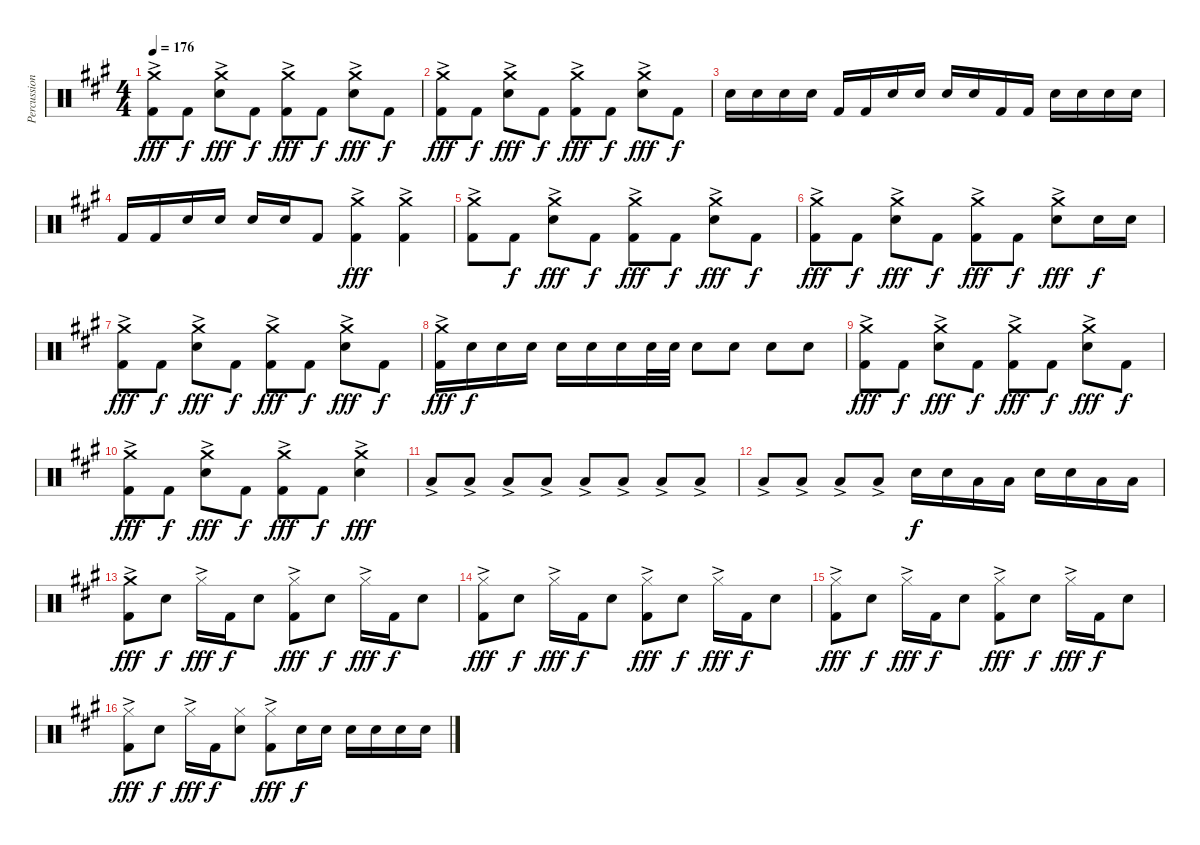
\track ("Percussion" "Percussion") {instrument percussion}
\staff {score}
\articulation defaults
\ts (4 4)
\tempo 176
\clef neutral
\ks a
("Crash medium (hit)"{ac} "Kick (hit) 2").8{dy fff} "Kick (hit) 2".8{dy f} ("Crash medium (hit)"{ac} "Snare (hit) 2").8{dy fff} "Kick (hit) 2".8{dy f} ("Crash medium (hit)"{ac} "Kick (hit) 2").8{dy fff} "Kick (hit) 2".8{dy f} ("Crash medium (hit)"{ac} "Snare (hit) 2").8{dy fff} "Kick (hit) 2".8{dy f} |
("Crash medium (hit)"{ac} "Kick (hit) 2").8{dy fff} "Kick (hit) 2".8{dy f} ("Crash medium (hit)"{ac} "Snare (hit) 2").8{dy fff} "Kick (hit) 2".8{dy f} ("Crash medium (hit)"{ac} "Kick (hit) 2").8{dy fff} "Kick (hit) 2".8{dy f} ("Crash medium (hit)"{ac} "Snare (hit) 2").8{dy fff} "Kick (hit) 2".8{dy f} |
"Snare (hit) 2".16 "Snare (hit) 2".16 "Snare (hit) 2".16 "Snare (hit) 2".16 "Kick (hit) 2".16 "Kick (hit) 2".16 "Snare (hit) 2".16 "Snare (hit) 2".16 "Snare (hit) 2".16 "Snare (hit) 2".16 "Kick (hit) 2".16 "Kick (hit) 2".16 "Snare (hit) 2".16 "Snare (hit) 2".16 "Snare (hit) 2".16 "Snare (hit) 2".16 |
"Kick (hit) 2".16 "Kick (hit) 2".16 "Snare (hit) 2".16 "Snare (hit) 2".16 "Snare (hit) 2".16 "Snare (hit) 2".16 "Kick (hit) 2".8 ("Crash medium (hit)"{ac} "Kick (hit) 2"{ac}).4{dy fff} ("Crash medium (hit)"{ac} "Kick (hit) 2"{ac}).4 |
("Crash medium (hit)"{ac} "Kick (hit) 2").8 "Kick (hit) 2".8{dy f} ("Crash medium (hit)"{ac} "Snare (hit) 2").8{dy fff} "Kick (hit) 2".8{dy f} ("Crash medium (hit)"{ac} "Kick (hit) 2").8{dy fff} "Kick (hit) 2".8{dy f} ("Crash medium (hit)"{ac} "Snare (hit) 2").8{dy fff} "Kick (hit) 2".8{dy f} |
("Crash medium (hit)"{ac} "Kick (hit) 2").8{dy fff} "Kick (hit) 2".8{dy f} ("Crash medium (hit)"{ac} "Snare (hit) 2").8{dy fff} "Kick (hit) 2".8{dy f} ("Crash medium (hit)"{ac} "Kick (hit) 2").8{dy fff} "Kick (hit) 2".8{dy f} ("Crash medium (hit)"{ac} "Snare (hit) 2").8{dy fff} "Snare (hit) 2".16{dy f} "Snare (hit) 2".16 |
("Crash medium (hit)"{ac} "Kick (hit) 2").8{dy fff} "Kick (hit) 2".8{dy f} ("Crash medium (hit)"{ac} "Snare (hit) 2").8{dy fff} "Kick (hit) 2".8{dy f} ("Crash medium (hit)"{ac} "Kick (hit) 2").8{dy fff} "Kick (hit) 2".8{dy f} ("Crash medium (hit)"{ac} "Snare (hit) 2").8{dy fff} "Kick (hit) 2".8{dy f} |
("Crash medium (hit)"{ac} "Kick (hit) 2"{ac}).16{dy fff} "Snare (hit) 2".16{dy f} "Snare (hit) 2".16 "Snare (hit) 2".16 "Snare (hit) 2".16 "Snare (hit) 2".16 "Snare (hit) 2".16 "Snare (hit) 2".32 "Snare (hit) 2".32 "Snare (hit) 2".8 "Snare (hit) 2".8 "Snare (hit) 2".8 "Snare (hit) 2".8 |
("Crash medium (hit)"{ac} "Kick (hit) 2").8{dy fff} "Kick (hit) 2".8{dy f} ("Crash medium (hit)"{ac} "Snare (hit) 2").8{dy fff} "Kick (hit) 2".8{dy f} ("Crash medium (hit)"{ac} "Kick (hit) 2").8{dy fff} "Kick (hit) 2".8{dy f} ("Crash medium (hit)"{ac} "Snare (hit) 2").8{dy fff} "Kick (hit) 2".8{dy f} |
("Crash medium (hit)"{ac} "Kick (hit) 2").8{dy fff} "Kick (hit) 2".8{dy f} ("Crash medium (hit)"{ac} "Snare (hit) 2").8{dy fff} "Kick (hit) 2".8{dy f} ("Crash medium (hit)"{ac} "Kick (hit) 2").8{dy fff} "Kick (hit) 2".8{dy f} ("Crash medium (hit)"{ac} "Snare (hit) 2").4{dy fff} |
"Low Floor Tom (hit)"{ac}.8 "Low Floor Tom (hit)"{ac}.8 "Low Floor Tom (hit)"{ac}.8 "Low Floor Tom (hit)"{ac}.8 "Low Floor Tom (hit)"{ac}.8 "Low Floor Tom (hit)"{ac}.8 "Low Floor Tom (hit)"{ac}.8 "Low Floor Tom (hit)"{ac}.8 |
"Low Floor Tom (hit)"{ac}.8 "Low Floor Tom (hit)"{ac}.8 "Low Floor Tom (hit)"{ac}.8 "Low Floor Tom (hit)"{ac}.8 "Snare (hit) 2".16{dy f} "Snare (hit) 2".16 "Low Floor Tom (hit)".16 "Low Floor Tom (hit)".16 "Snare (hit) 2".16 "Snare (hit) 2".16 "Low Floor Tom (hit)".16 "Low Floor Tom (hit)".16 |
("Crash medium (hit)"{ac} "Kick (hit) 2").8{dy fff} "Snare (hit) 2".8{dy f} "Hi-Hat (closed)"{ac}.16{dy fff} "Kick (hit) 2".16{dy f} "Snare (hit) 2".8 ("Hi-Hat (closed)"{ac} "Kick (hit) 2").8{dy fff} "Snare (hit) 2".8{dy f} "Hi-Hat (closed)"{ac}.16{dy fff} "Kick (hit) 2".16{dy f} "Snare (hit) 2".8 |
("Hi-Hat (closed)"{ac} "Kick (hit) 2").8{dy fff} "Snare (hit) 2".8{dy f} "Hi-Hat (closed)"{ac}.16{dy fff} "Kick (hit) 2".16{dy f} "Snare (hit) 2".8 ("Hi-Hat (closed)"{ac} "Kick (hit) 2").8{dy fff} "Snare (hit) 2".8{dy f} "Hi-Hat (closed)"{ac}.16{dy fff} "Kick (hit) 2".16{dy f} "Snare (hit) 2".8 |
("Hi-Hat (closed)"{ac} "Kick (hit) 2").8{dy fff} "Snare (hit) 2".8{dy f} "Hi-Hat (closed)"{ac}.16{dy fff} "Kick (hit) 2".16{dy f} "Snare (hit) 2".8 ("Hi-Hat (closed)"{ac} "Kick (hit) 2").8{dy fff} "Snare (hit) 2".8{dy f} "Hi-Hat (closed)"{ac}.16{dy fff} "Kick (hit) 2".16{dy f} "Snare (hit) 2".8 |
("Hi-Hat (closed)"{ac} "Kick (hit) 2").8{dy fff} "Snare (hit) 2".8{dy f} "Hi-Hat (closed)"{ac}.16{dy fff} "Kick (hit) 2".16{dy f} ("Hi-Hat (closed)" "Snare (hit) 2").8 ("Hi-Hat (closed)"{ac} "Kick (hit) 2").8{dy fff} "Snare (hit) 2".16{dy f} "Snare (hit) 2".16 "Snare (hit) 2".16 "Snare (hit) 2".16 "Snare (hit) 2".16 "Snare (hit) 2".16
